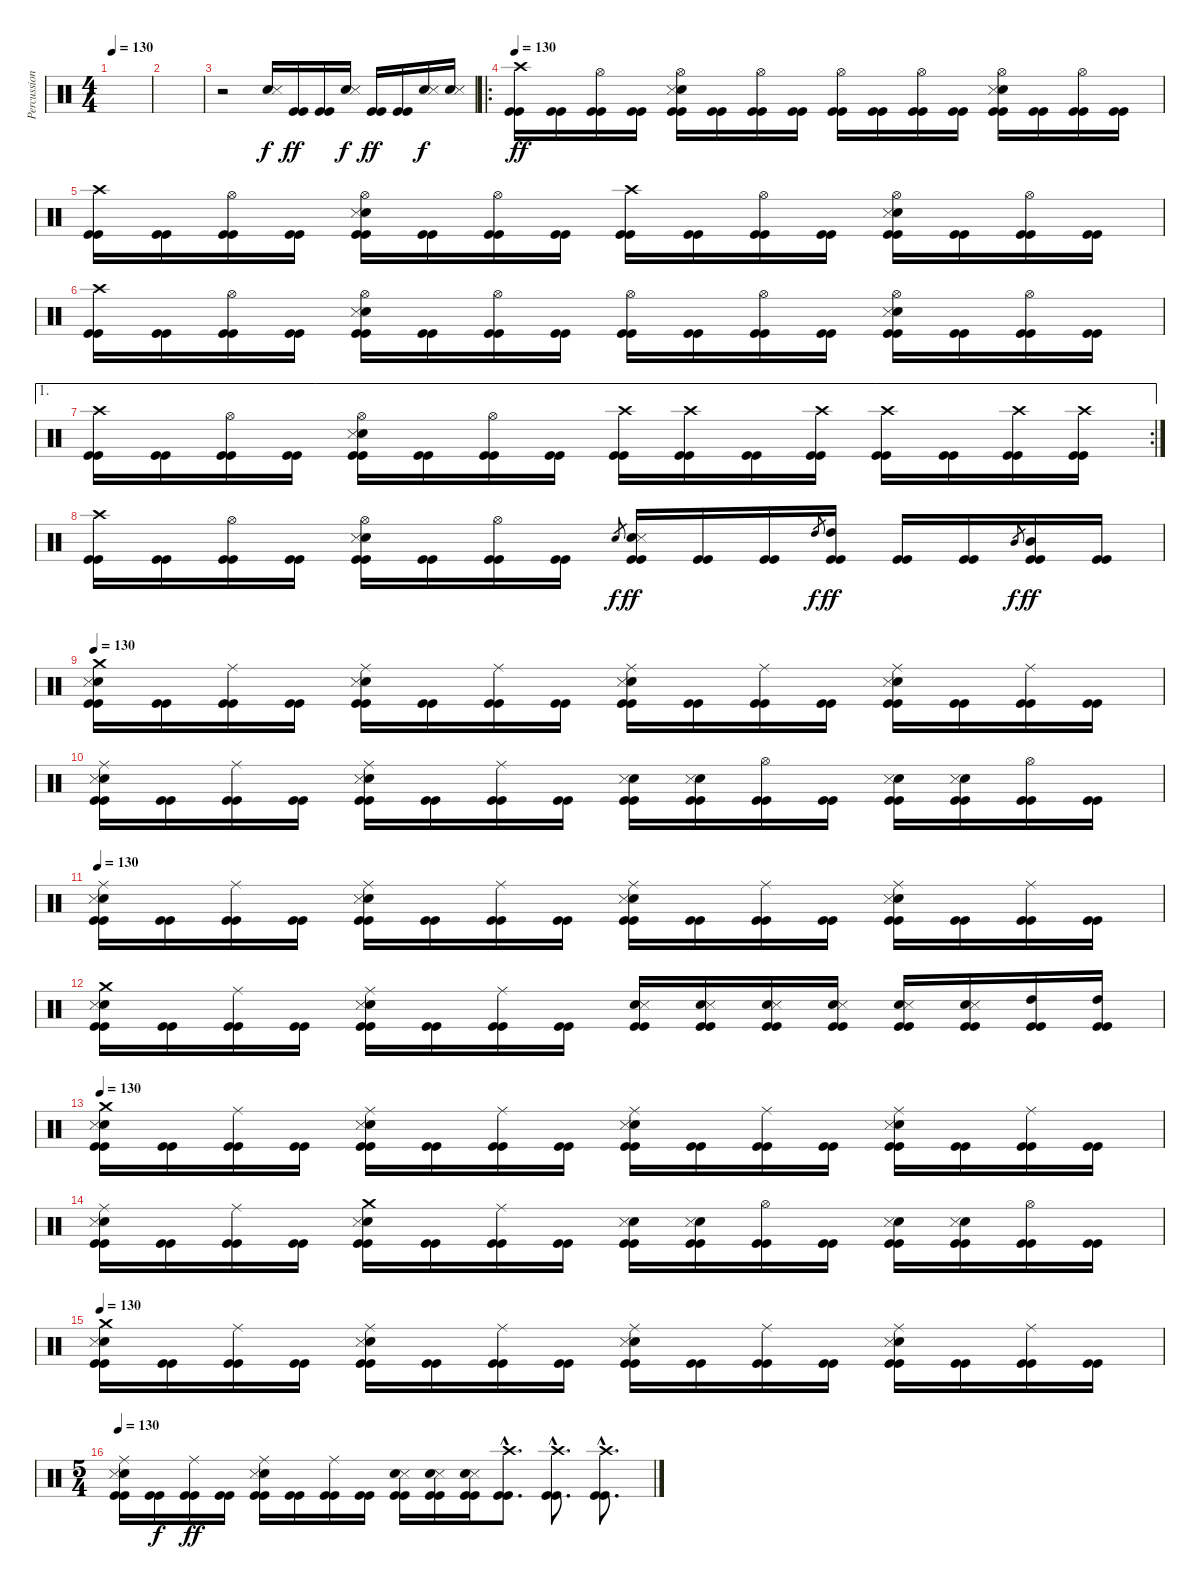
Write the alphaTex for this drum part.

\track ("Percussion" "Percussion") {instrument percussion}
\staff {score}
\articulation defaults
\ts (4 4)
\tempo 130
\clef neutral
\ks c
|
|
r.2 ("Electric Snare (hit)" "Snare (side stick) 3").16{dy f} ("Kick (hit)" "Kick (hit)").16{dy ff} ("Kick (hit)" "Kick (hit)").16 ("Electric Snare (hit)" "Snare (side stick) 3").16{dy f} ("Kick (hit)" "Kick (hit)").16{dy ff} ("Kick (hit)" "Kick (hit)").16 ("Electric Snare (hit)" "Snare (side stick) 3").16{dy f} ("Electric Snare (hit)" "Snare (side stick) 3").16 |
\ro
\tempo 130
("Crash high (hit)" "Kick (hit)" "Kick (hit)").16{dy ff} ("Kick (hit)" "Kick (hit)").16 ("Hi-Hat (open)" "Kick (hit)" "Kick (hit)").16 ("Kick (hit)" "Kick (hit)").16 ("Electric Snare (hit)" "Snare (side stick) 3" "Hi-Hat (open)" "Kick (hit)" "Kick (hit)").16 ("Kick (hit)" "Kick (hit)").16 ("Hi-Hat (open)" "Kick (hit)" "Kick (hit)").16 ("Kick (hit)" "Kick (hit)").16 ("Hi-Hat (open)" "Kick (hit)" "Kick (hit)").16 ("Kick (hit)" "Kick (hit)").16 ("Hi-Hat (open)" "Kick (hit)" "Kick (hit)").16 ("Kick (hit)" "Kick (hit)").16 ("Electric Snare (hit)" "Snare (side stick) 3" "Hi-Hat (open)" "Kick (hit)" "Kick (hit)").16 ("Kick (hit)" "Kick (hit)").16 ("Hi-Hat (open)" "Kick (hit)" "Kick (hit)").16 ("Kick (hit)" "Kick (hit)").16 |
("Crash high (hit)" "Kick (hit)" "Kick (hit)").16 ("Kick (hit)" "Kick (hit)").16 ("Hi-Hat (open)" "Kick (hit)" "Kick (hit)").16 ("Kick (hit)" "Kick (hit)").16 ("Electric Snare (hit)" "Snare (side stick) 3" "Hi-Hat (open)" "Kick (hit)" "Kick (hit)").16 ("Kick (hit)" "Kick (hit)").16 ("Hi-Hat (open)" "Kick (hit)" "Kick (hit)").16 ("Kick (hit)" "Kick (hit)").16 ("Crash high (hit)" "Kick (hit)" "Kick (hit)").16 ("Kick (hit)" "Kick (hit)").16 ("Hi-Hat (open)" "Kick (hit)" "Kick (hit)").16 ("Kick (hit)" "Kick (hit)").16 ("Electric Snare (hit)" "Snare (side stick) 3" "Hi-Hat (open)" "Kick (hit)" "Kick (hit)").16 ("Kick (hit)" "Kick (hit)").16 ("Hi-Hat (open)" "Kick (hit)" "Kick (hit)").16 ("Kick (hit)" "Kick (hit)").16 |
("Crash high (hit)" "Kick (hit)" "Kick (hit)").16 ("Kick (hit)" "Kick (hit)").16 ("Hi-Hat (open)" "Kick (hit)" "Kick (hit)").16 ("Kick (hit)" "Kick (hit)").16 ("Electric Snare (hit)" "Snare (side stick) 3" "Hi-Hat (open)" "Kick (hit)" "Kick (hit)").16 ("Kick (hit)" "Kick (hit)").16 ("Hi-Hat (open)" "Kick (hit)" "Kick (hit)").16 ("Kick (hit)" "Kick (hit)").16 ("Hi-Hat (open)" "Kick (hit)" "Kick (hit)").16 ("Kick (hit)" "Kick (hit)").16 ("Hi-Hat (open)" "Kick (hit)" "Kick (hit)").16 ("Kick (hit)" "Kick (hit)").16 ("Electric Snare (hit)" "Snare (side stick) 3" "Hi-Hat (open)" "Kick (hit)" "Kick (hit)").16 ("Kick (hit)" "Kick (hit)").16 ("Hi-Hat (open)" "Kick (hit)" "Kick (hit)").16 ("Kick (hit)" "Kick (hit)").16 |
\ae 1
\rc 2
("Crash high (hit)" "Kick (hit)" "Kick (hit)").16 ("Kick (hit)" "Kick (hit)").16 ("Hi-Hat (open)" "Kick (hit)" "Kick (hit)").16 ("Kick (hit)" "Kick (hit)").16 ("Electric Snare (hit)" "Snare (side stick) 3" "Hi-Hat (open)" "Kick (hit)" "Kick (hit)").16 ("Kick (hit)" "Kick (hit)").16 ("Hi-Hat (open)" "Kick (hit)" "Kick (hit)").16 ("Kick (hit)" "Kick (hit)").16 ("Crash high (hit)" "Kick (hit)" "Kick (hit)").16 ("Crash high (hit)" "Kick (hit)" "Kick (hit)").16 ("Kick (hit)" "Kick (hit)").16 ("Crash high (hit)" "Kick (hit)" "Kick (hit)").16 ("Crash high (hit)" "Kick (hit)" "Kick (hit)").16 ("Kick (hit)" "Kick (hit)").16 ("Crash high (hit)" "Kick (hit)" "Kick (hit)").16 ("Crash high (hit)" "Kick (hit)" "Kick (hit)").16 |
("Crash high (hit)" "Kick (hit)" "Kick (hit)").16 ("Kick (hit)" "Kick (hit)").16 ("Hi-Hat (open)" "Kick (hit)" "Kick (hit)").16 ("Kick (hit)" "Kick (hit)").16 ("Electric Snare (hit)" "Snare (side stick) 3" "Hi-Hat (open)" "Kick (hit)" "Kick (hit)").16 ("Kick (hit)" "Kick (hit)").16 ("Hi-Hat (open)" "Kick (hit)" "Kick (hit)").16 ("Kick (hit)" "Kick (hit)").16 "Electric Snare (hit)".8{gr dy f} ("Electric Snare (hit)" "Snare (side stick) 3" "Kick (hit)" "Kick (hit)").16{dy ff} ("Kick (hit)" "Kick (hit)").16 ("Kick (hit)" "Kick (hit)").16 "High Tom (hit)".8{gr dy f} ("High Tom (hit)" "Kick (hit)" "Kick (hit)").16{dy ff} ("Kick (hit)" "Kick (hit)").16 ("Kick (hit)" "Kick (hit)").16 "Mid Tom (hit)".8{gr dy f} ("Mid Tom (hit)" "Kick (hit)" "Kick (hit)").16{dy ff} ("Kick (hit)" "Kick (hit)").16 |
\tempo 130
("Electric Snare (hit)" "Snare (side stick) 3" "Crash medium (hit)" "Kick (hit)" "Kick (hit)").16 ("Kick (hit)" "Kick (hit)").16 ("Ride (middle)" "Kick (hit)" "Kick (hit)").16 ("Kick (hit)" "Kick (hit)").16 ("Electric Snare (hit)" "Snare (side stick) 3" "Ride (middle)" "Kick (hit)" "Kick (hit)").16 ("Kick (hit)" "Kick (hit)").16 ("Ride (middle)" "Kick (hit)" "Kick (hit)").16 ("Kick (hit)" "Kick (hit)").16 ("Electric Snare (hit)" "Snare (side stick) 3" "Ride (middle)" "Kick (hit)" "Kick (hit)").16 ("Kick (hit)" "Kick (hit)").16 ("Ride (middle)" "Kick (hit)" "Kick (hit)").16 ("Kick (hit)" "Kick (hit)").16 ("Electric Snare (hit)" "Snare (side stick) 3" "Ride (middle)" "Kick (hit)" "Kick (hit)").16 ("Kick (hit)" "Kick (hit)").16 ("Ride (middle)" "Kick (hit)" "Kick (hit)").16 ("Kick (hit)" "Kick (hit)").16 |
("Electric Snare (hit)" "Snare (side stick) 3" "Ride (middle)" "Kick (hit)" "Kick (hit)").16 ("Kick (hit)" "Kick (hit)").16 ("Ride (middle)" "Kick (hit)" "Kick (hit)").16 ("Kick (hit)" "Kick (hit)").16 ("Electric Snare (hit)" "Snare (side stick) 3" "Ride (middle)" "Kick (hit)" "Kick (hit)").16 ("Kick (hit)" "Kick (hit)").16 ("Ride (middle)" "Kick (hit)" "Kick (hit)").16 ("Kick (hit)" "Kick (hit)").16 ("Electric Snare (hit)" "Snare (side stick) 3" "Kick (hit)" "Kick (hit)").16 ("Electric Snare (hit)" "Snare (side stick) 3" "Kick (hit)" "Kick (hit)").16 ("Hi-Hat (open)" "Kick (hit)" "Kick (hit)").16 ("Kick (hit)" "Kick (hit)").16 ("Electric Snare (hit)" "Snare (side stick) 3" "Kick (hit)" "Kick (hit)").16 ("Electric Snare (hit)" "Snare (side stick) 3" "Kick (hit)" "Kick (hit)").16 ("Hi-Hat (open)" "Kick (hit)" "Kick (hit)").16 ("Kick (hit)" "Kick (hit)").16 |
\tempo 130
("Electric Snare (hit)" "Snare (side stick) 3" "Ride (middle)" "Kick (hit)" "Kick (hit)").16 ("Kick (hit)" "Kick (hit)").16 ("Ride (middle)" "Kick (hit)" "Kick (hit)").16 ("Kick (hit)" "Kick (hit)").16 ("Electric Snare (hit)" "Snare (side stick) 3" "Ride (middle)" "Kick (hit)" "Kick (hit)").16 ("Kick (hit)" "Kick (hit)").16 ("Ride (middle)" "Kick (hit)" "Kick (hit)").16 ("Kick (hit)" "Kick (hit)").16 ("Electric Snare (hit)" "Snare (side stick) 3" "Ride (middle)" "Kick (hit)" "Kick (hit)").16 ("Kick (hit)" "Kick (hit)").16 ("Ride (middle)" "Kick (hit)" "Kick (hit)").16 ("Kick (hit)" "Kick (hit)").16 ("Electric Snare (hit)" "Snare (side stick) 3" "Ride (middle)" "Kick (hit)" "Kick (hit)").16 ("Kick (hit)" "Kick (hit)").16 ("Ride (middle)" "Kick (hit)" "Kick (hit)").16 ("Kick (hit)" "Kick (hit)").16 |
("Kick (hit)" "Crash medium (hit)" "Electric Snare (hit)" "Snare (side stick) 3" "Kick (hit)").16 ("Kick (hit)" "Kick (hit)").16 ("Ride (middle)" "Kick (hit)" "Kick (hit)").16 ("Kick (hit)" "Kick (hit)").16 ("Kick (hit)" "Ride (middle)" "Electric Snare (hit)" "Snare (side stick) 3" "Kick (hit)").16 ("Kick (hit)" "Kick (hit)").16 ("Ride (middle)" "Kick (hit)" "Kick (hit)").16 ("Kick (hit)" "Kick (hit)").16 ("Electric Snare (hit)" "Snare (side stick) 3" "Kick (hit)" "Kick (hit)").16 ("Electric Snare (hit)" "Snare (side stick) 3" "Kick (hit)" "Kick (hit)").16 ("Electric Snare (hit)" "Snare (side stick) 3" "Kick (hit)" "Kick (hit)").16 ("Electric Snare (hit)" "Snare (side stick) 3" "Kick (hit)" "Kick (hit)").16 ("Electric Snare (hit)" "Snare (side stick) 3" "Kick (hit)" "Kick (hit)").16 ("Electric Snare (hit)" "Snare (side stick) 3" "Kick (hit)" "Kick (hit)").16 ("High Tom (hit)" "Kick (hit)" "Kick (hit)").16 ("High Tom (hit)" "Kick (hit)" "Kick (hit)").16 |
\tempo 130
("Electric Snare (hit)" "Snare (side stick) 3" "Crash medium (hit)" "Kick (hit)" "Kick (hit)").16 ("Kick (hit)" "Kick (hit)").16 ("Ride (middle)" "Kick (hit)" "Kick (hit)").16 ("Kick (hit)" "Kick (hit)").16 ("Electric Snare (hit)" "Snare (side stick) 3" "Ride (middle)" "Kick (hit)" "Kick (hit)").16 ("Kick (hit)" "Kick (hit)").16 ("Ride (middle)" "Kick (hit)" "Kick (hit)").16 ("Kick (hit)" "Kick (hit)").16 ("Electric Snare (hit)" "Snare (side stick) 3" "Ride (middle)" "Kick (hit)" "Kick (hit)").16 ("Kick (hit)" "Kick (hit)").16 ("Ride (middle)" "Kick (hit)" "Kick (hit)").16 ("Kick (hit)" "Kick (hit)").16 ("Electric Snare (hit)" "Snare (side stick) 3" "Ride (middle)" "Kick (hit)" "Kick (hit)").16 ("Kick (hit)" "Kick (hit)").16 ("Ride (middle)" "Kick (hit)" "Kick (hit)").16 ("Kick (hit)" "Kick (hit)").16 |
("Electric Snare (hit)" "Snare (side stick) 3" "Ride (middle)" "Kick (hit)" "Kick (hit)").16 ("Kick (hit)" "Kick (hit)").16 ("Ride (middle)" "Kick (hit)" "Kick (hit)").16 ("Kick (hit)" "Kick (hit)").16 ("Electric Snare (hit)" "Snare (side stick) 3" "Crash medium (hit)" "Kick (hit)" "Kick (hit)").16 ("Kick (hit)" "Kick (hit)").16 ("Ride (middle)" "Kick (hit)" "Kick (hit)").16 ("Kick (hit)" "Kick (hit)").16 ("Electric Snare (hit)" "Snare (side stick) 3" "Kick (hit)" "Kick (hit)").16 ("Electric Snare (hit)" "Snare (side stick) 3" "Kick (hit)" "Kick (hit)").16 ("Hi-Hat (open)" "Kick (hit)" "Kick (hit)").16 ("Kick (hit)" "Kick (hit)").16 ("Electric Snare (hit)" "Snare (side stick) 3" "Kick (hit)" "Kick (hit)").16 ("Electric Snare (hit)" "Snare (side stick) 3" "Kick (hit)" "Kick (hit)").16 ("Hi-Hat (open)" "Kick (hit)" "Kick (hit)").16 ("Kick (hit)" "Kick (hit)").16 |
\tempo 130
("Electric Snare (hit)" "Snare (side stick) 3" "Crash medium (hit)" "Kick (hit)" "Kick (hit)").16 ("Kick (hit)" "Kick (hit)").16 ("Ride (middle)" "Kick (hit)" "Kick (hit)").16 ("Kick (hit)" "Kick (hit)").16 ("Electric Snare (hit)" "Snare (side stick) 3" "Ride (middle)" "Kick (hit)" "Kick (hit)").16 ("Kick (hit)" "Kick (hit)").16 ("Ride (middle)" "Kick (hit)" "Kick (hit)").16 ("Kick (hit)" "Kick (hit)").16 ("Electric Snare (hit)" "Snare (side stick) 3" "Ride (middle)" "Kick (hit)" "Kick (hit)").16 ("Kick (hit)" "Kick (hit)").16 ("Ride (middle)" "Kick (hit)" "Kick (hit)").16 ("Kick (hit)" "Kick (hit)").16 ("Electric Snare (hit)" "Snare (side stick) 3" "Ride (middle)" "Kick (hit)" "Kick (hit)").16 ("Kick (hit)" "Kick (hit)").16 ("Ride (middle)" "Kick (hit)" "Kick (hit)").16 ("Kick (hit)" "Kick (hit)").16 |
\ts (5 4)
\tempo 130
("Electric Snare (hit)" "Snare (side stick) 3" "Ride (middle)" "Kick (hit)" "Kick (hit)").16 ("Kick (hit)" "Kick (hit)").16{dy f} ("Ride (middle)" "Kick (hit)" "Kick (hit)").16{dy ff} ("Kick (hit)" "Kick (hit)").16 ("Electric Snare (hit)" "Snare (side stick) 3" "Ride (middle)" "Kick (hit)" "Kick (hit)").16 ("Kick (hit)" "Kick (hit)").16 ("Ride (middle)" "Kick (hit)" "Kick (hit)").16 ("Kick (hit)" "Kick (hit)").16 ("Snare (side stick) 3" "Electric Snare (hit)" "Kick (hit)" "Kick (hit)").16 ("Snare (side stick) 3" "Electric Snare (hit)" "Kick (hit)" "Kick (hit)").16 ("Snare (side stick) 3" "Electric Snare (hit)" "Kick (hit)" "Kick (hit)").16 ("Crash high (hit)"{hac} "Kick (hit)"{hac} "Kick (hit)"{hac}).8{d} ("Crash high (hit)"{hac} "Kick (hit)"{hac} "Kick (hit)"{hac}).8{d} ("Crash high (hit)"{hac} "Kick (hit)"{hac} "Kick (hit)"{hac}).8{d}
